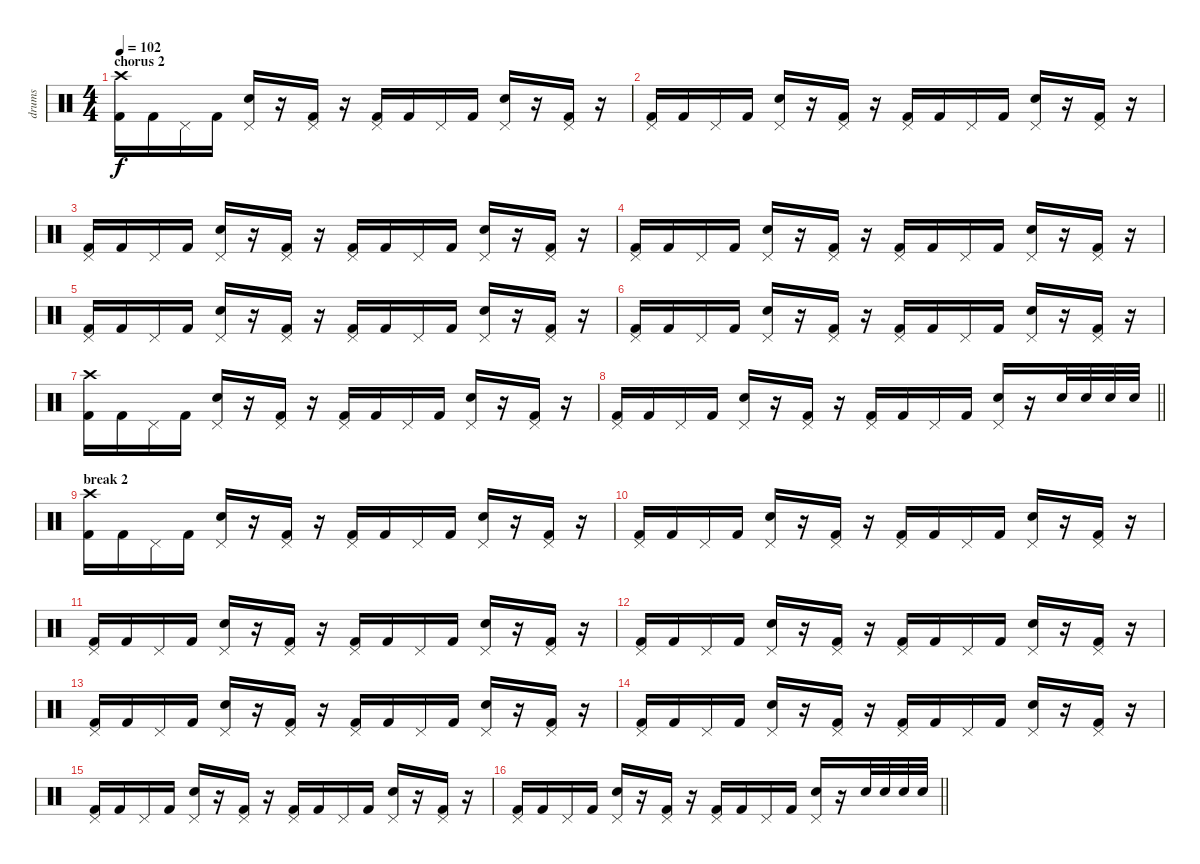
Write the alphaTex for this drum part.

\track ("drums" "drums") {instrument percussion}
\staff {score}
\articulation defaults
\ts (4 4)
\section ("" "chorus 2")
\tempo 102
\clef neutral
\ks c
("Kick (hit) 2" "Crash high (hit)").16{dy f} "Kick (hit) 2".16 "Pedal Hi-Hat (hit)".16 "Kick (hit) 2".16 ("Electric Snare (hit)" "Pedal Hi-Hat (hit)").16 r.16 ("Kick (hit) 2" "Pedal Hi-Hat (hit)").16 r.16 ("Kick (hit) 2" "Pedal Hi-Hat (hit)").16 "Kick (hit) 2".16 "Pedal Hi-Hat (hit)".16 "Kick (hit) 2".16 ("Electric Snare (hit)" "Pedal Hi-Hat (hit)").16 r.16 ("Kick (hit) 2" "Pedal Hi-Hat (hit)").16 r.16 |
("Kick (hit) 2" "Pedal Hi-Hat (hit)").16 "Kick (hit) 2".16 "Pedal Hi-Hat (hit)".16 "Kick (hit) 2".16 ("Electric Snare (hit)" "Pedal Hi-Hat (hit)").16 r.16 ("Kick (hit) 2" "Pedal Hi-Hat (hit)").16 r.16 ("Kick (hit) 2" "Pedal Hi-Hat (hit)").16 "Kick (hit) 2".16 "Pedal Hi-Hat (hit)".16 "Kick (hit) 2".16 ("Electric Snare (hit)" "Pedal Hi-Hat (hit)").16 r.16 ("Kick (hit) 2" "Pedal Hi-Hat (hit)").16 r.16 |
("Kick (hit) 2" "Pedal Hi-Hat (hit)").16 "Kick (hit) 2".16 "Pedal Hi-Hat (hit)".16 "Kick (hit) 2".16 ("Electric Snare (hit)" "Pedal Hi-Hat (hit)").16 r.16 ("Kick (hit) 2" "Pedal Hi-Hat (hit)").16 r.16 ("Kick (hit) 2" "Pedal Hi-Hat (hit)").16 "Kick (hit) 2".16 "Pedal Hi-Hat (hit)".16 "Kick (hit) 2".16 ("Electric Snare (hit)" "Pedal Hi-Hat (hit)").16 r.16 ("Kick (hit) 2" "Pedal Hi-Hat (hit)").16 r.16 |
("Kick (hit) 2" "Pedal Hi-Hat (hit)").16 "Kick (hit) 2".16 "Pedal Hi-Hat (hit)".16 "Kick (hit) 2".16 ("Electric Snare (hit)" "Pedal Hi-Hat (hit)").16 r.16 ("Kick (hit) 2" "Pedal Hi-Hat (hit)").16 r.16 ("Kick (hit) 2" "Pedal Hi-Hat (hit)").16 "Kick (hit) 2".16 "Pedal Hi-Hat (hit)".16 "Kick (hit) 2".16 ("Electric Snare (hit)" "Pedal Hi-Hat (hit)").16 r.16 ("Kick (hit) 2" "Pedal Hi-Hat (hit)").16 r.16 |
("Kick (hit) 2" "Pedal Hi-Hat (hit)").16 "Kick (hit) 2".16 "Pedal Hi-Hat (hit)".16 "Kick (hit) 2".16 ("Electric Snare (hit)" "Pedal Hi-Hat (hit)").16 r.16 ("Kick (hit) 2" "Pedal Hi-Hat (hit)").16 r.16 ("Kick (hit) 2" "Pedal Hi-Hat (hit)").16 "Kick (hit) 2".16 "Pedal Hi-Hat (hit)".16 "Kick (hit) 2".16 ("Electric Snare (hit)" "Pedal Hi-Hat (hit)").16 r.16 ("Kick (hit) 2" "Pedal Hi-Hat (hit)").16 r.16 |
("Kick (hit) 2" "Pedal Hi-Hat (hit)").16 "Kick (hit) 2".16 "Pedal Hi-Hat (hit)".16 "Kick (hit) 2".16 ("Electric Snare (hit)" "Pedal Hi-Hat (hit)").16 r.16 ("Kick (hit) 2" "Pedal Hi-Hat (hit)").16 r.16 ("Kick (hit) 2" "Pedal Hi-Hat (hit)").16 "Kick (hit) 2".16 "Pedal Hi-Hat (hit)".16 "Kick (hit) 2".16 ("Electric Snare (hit)" "Pedal Hi-Hat (hit)").16 r.16 ("Kick (hit) 2" "Pedal Hi-Hat (hit)").16 r.16 |
("Kick (hit) 2" "Crash high (hit)").16 "Kick (hit) 2".16 "Pedal Hi-Hat (hit)".16 "Kick (hit) 2".16 ("Electric Snare (hit)" "Pedal Hi-Hat (hit)").16 r.16 ("Kick (hit) 2" "Pedal Hi-Hat (hit)").16 r.16 ("Kick (hit) 2" "Pedal Hi-Hat (hit)").16 "Kick (hit) 2".16 "Pedal Hi-Hat (hit)".16 "Kick (hit) 2".16 ("Electric Snare (hit)" "Pedal Hi-Hat (hit)").16 r.16 ("Kick (hit) 2" "Pedal Hi-Hat (hit)").16 r.16 |
\barLineRight lightlight
("Kick (hit) 2" "Pedal Hi-Hat (hit)").16 "Kick (hit) 2".16 "Pedal Hi-Hat (hit)".16 "Kick (hit) 2".16 ("Electric Snare (hit)" "Pedal Hi-Hat (hit)").16 r.16 ("Kick (hit) 2" "Pedal Hi-Hat (hit)").16 r.16 ("Kick (hit) 2" "Pedal Hi-Hat (hit)").16 "Kick (hit) 2".16 "Pedal Hi-Hat (hit)".16 "Kick (hit) 2".16 ("Electric Snare (hit)" "Pedal Hi-Hat (hit)").16 r.16 "Electric Snare (hit)".32 "Electric Snare (hit)".32 "Electric Snare (hit)".32 "Electric Snare (hit)".32 |
\section ("" "break 2")
("Kick (hit) 2" "Crash high (hit)").16 "Kick (hit) 2".16 "Pedal Hi-Hat (hit)".16 "Kick (hit) 2".16 ("Electric Snare (hit)" "Pedal Hi-Hat (hit)").16 r.16 ("Kick (hit) 2" "Pedal Hi-Hat (hit)").16 r.16 ("Kick (hit) 2" "Pedal Hi-Hat (hit)").16 "Kick (hit) 2".16 "Pedal Hi-Hat (hit)".16 "Kick (hit) 2".16 ("Electric Snare (hit)" "Pedal Hi-Hat (hit)").16 r.16 ("Kick (hit) 2" "Pedal Hi-Hat (hit)").16 r.16 |
("Kick (hit) 2" "Pedal Hi-Hat (hit)").16 "Kick (hit) 2".16 "Pedal Hi-Hat (hit)".16 "Kick (hit) 2".16 ("Electric Snare (hit)" "Pedal Hi-Hat (hit)").16 r.16 ("Kick (hit) 2" "Pedal Hi-Hat (hit)").16 r.16 ("Kick (hit) 2" "Pedal Hi-Hat (hit)").16 "Kick (hit) 2".16 "Pedal Hi-Hat (hit)".16 "Kick (hit) 2".16 ("Electric Snare (hit)" "Pedal Hi-Hat (hit)").16 r.16 ("Kick (hit) 2" "Pedal Hi-Hat (hit)").16 r.16 |
("Kick (hit) 2" "Pedal Hi-Hat (hit)").16 "Kick (hit) 2".16 "Pedal Hi-Hat (hit)".16 "Kick (hit) 2".16 ("Electric Snare (hit)" "Pedal Hi-Hat (hit)").16 r.16 ("Kick (hit) 2" "Pedal Hi-Hat (hit)").16 r.16 ("Kick (hit) 2" "Pedal Hi-Hat (hit)").16 "Kick (hit) 2".16 "Pedal Hi-Hat (hit)".16 "Kick (hit) 2".16 ("Electric Snare (hit)" "Pedal Hi-Hat (hit)").16 r.16 ("Kick (hit) 2" "Pedal Hi-Hat (hit)").16 r.16 |
("Kick (hit) 2" "Pedal Hi-Hat (hit)").16 "Kick (hit) 2".16 "Pedal Hi-Hat (hit)".16 "Kick (hit) 2".16 ("Electric Snare (hit)" "Pedal Hi-Hat (hit)").16 r.16 ("Kick (hit) 2" "Pedal Hi-Hat (hit)").16 r.16 ("Kick (hit) 2" "Pedal Hi-Hat (hit)").16 "Kick (hit) 2".16 "Pedal Hi-Hat (hit)".16 "Kick (hit) 2".16 ("Electric Snare (hit)" "Pedal Hi-Hat (hit)").16 r.16 ("Kick (hit) 2" "Pedal Hi-Hat (hit)").16 r.16 |
("Kick (hit) 2" "Pedal Hi-Hat (hit)").16 "Kick (hit) 2".16 "Pedal Hi-Hat (hit)".16 "Kick (hit) 2".16 ("Electric Snare (hit)" "Pedal Hi-Hat (hit)").16 r.16 ("Kick (hit) 2" "Pedal Hi-Hat (hit)").16 r.16 ("Kick (hit) 2" "Pedal Hi-Hat (hit)").16 "Kick (hit) 2".16 "Pedal Hi-Hat (hit)".16 "Kick (hit) 2".16 ("Electric Snare (hit)" "Pedal Hi-Hat (hit)").16 r.16 ("Kick (hit) 2" "Pedal Hi-Hat (hit)").16 r.16 |
("Kick (hit) 2" "Pedal Hi-Hat (hit)").16 "Kick (hit) 2".16 "Pedal Hi-Hat (hit)".16 "Kick (hit) 2".16 ("Electric Snare (hit)" "Pedal Hi-Hat (hit)").16 r.16 ("Kick (hit) 2" "Pedal Hi-Hat (hit)").16 r.16 ("Kick (hit) 2" "Pedal Hi-Hat (hit)").16 "Kick (hit) 2".16 "Pedal Hi-Hat (hit)".16 "Kick (hit) 2".16 ("Electric Snare (hit)" "Pedal Hi-Hat (hit)").16 r.16 ("Kick (hit) 2" "Pedal Hi-Hat (hit)").16 r.16 |
("Kick (hit) 2" "Pedal Hi-Hat (hit)").16 "Kick (hit) 2".16 "Pedal Hi-Hat (hit)".16 "Kick (hit) 2".16 ("Electric Snare (hit)" "Pedal Hi-Hat (hit)").16 r.16 ("Kick (hit) 2" "Pedal Hi-Hat (hit)").16 r.16 ("Kick (hit) 2" "Pedal Hi-Hat (hit)").16 "Kick (hit) 2".16 "Pedal Hi-Hat (hit)".16 "Kick (hit) 2".16 ("Electric Snare (hit)" "Pedal Hi-Hat (hit)").16 r.16 ("Kick (hit) 2" "Pedal Hi-Hat (hit)").16 r.16 |
\barLineRight lightlight
("Kick (hit) 2" "Pedal Hi-Hat (hit)").16 "Kick (hit) 2".16 "Pedal Hi-Hat (hit)".16 "Kick (hit) 2".16 ("Electric Snare (hit)" "Pedal Hi-Hat (hit)").16 r.16 ("Kick (hit) 2" "Pedal Hi-Hat (hit)").16 r.16 ("Kick (hit) 2" "Pedal Hi-Hat (hit)").16 "Kick (hit) 2".16 "Pedal Hi-Hat (hit)".16 "Kick (hit) 2".16 ("Electric Snare (hit)" "Pedal Hi-Hat (hit)").16 r.16 "Electric Snare (hit)".32 "Electric Snare (hit)".32 "Electric Snare (hit)".32 "Electric Snare (hit)".32
